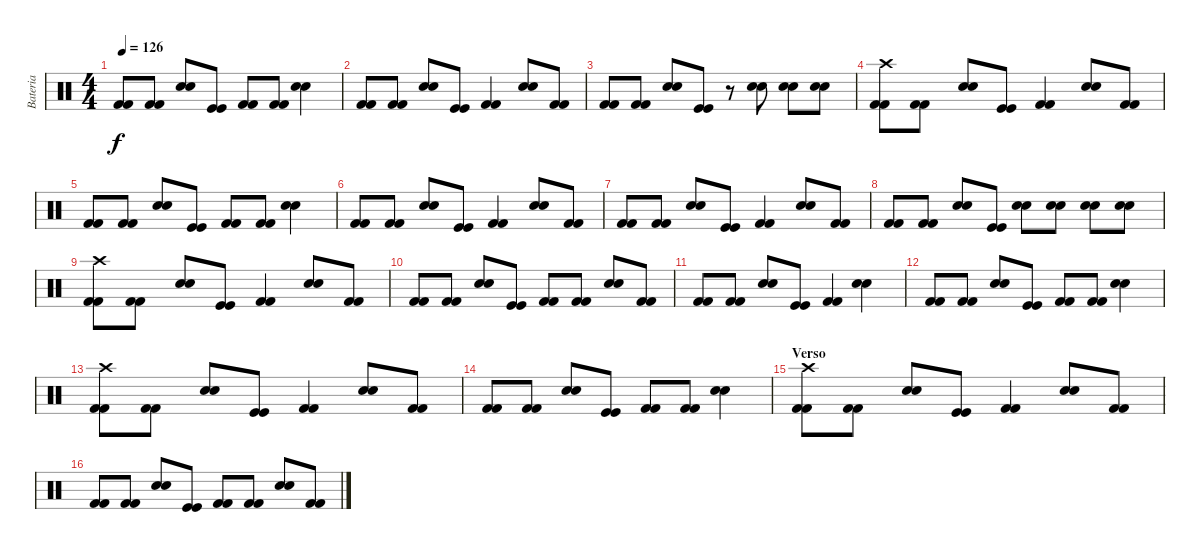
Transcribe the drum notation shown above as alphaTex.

\track ("Bateria" "Bateria") {instrument percussion}
\staff {score}
\articulation defaults
\ts (4 4)
\tempo 126
\clef neutral
\ks c
("Kick (hit) 2" "Kick (hit) 2").8{dy f} ("Kick (hit) 2" "Kick (hit) 2").8 ("Electric Snare (hit)" "Snare (hit) 2").8 ("Kick (hit)" "Kick (hit)").8 ("Kick (hit) 2" "Kick (hit) 2").8 ("Kick (hit) 2" "Kick (hit) 2").8 ("Electric Snare (hit)" "Snare (hit) 2").4 |
("Kick (hit) 2" "Kick (hit) 2").8 ("Kick (hit) 2" "Kick (hit) 2").8 ("Electric Snare (hit)" "Snare (hit) 2").8 ("Kick (hit)" "Kick (hit)").8 ("Kick (hit) 2" "Kick (hit) 2").4 ("Electric Snare (hit)" "Snare (hit) 2").8 ("Kick (hit) 2" "Kick (hit) 2").8 |
("Kick (hit) 2" "Kick (hit) 2").8 ("Kick (hit) 2" "Kick (hit) 2").8 ("Electric Snare (hit)" "Snare (hit) 2").8 ("Kick (hit)" "Kick (hit)").8 r.8 ("Electric Snare (hit)" "Snare (hit) 2").8 ("Electric Snare (hit)" "Snare (hit) 2").8 ("Electric Snare (hit)" "Snare (hit) 2").8 |
("Crash high (hit)" "Kick (hit) 2" "Kick (hit) 2").8 ("Kick (hit) 2" "Kick (hit) 2").8 ("Electric Snare (hit)" "Snare (hit) 2").8 ("Kick (hit)" "Kick (hit)").8 ("Kick (hit) 2" "Kick (hit) 2").4 ("Electric Snare (hit)" "Snare (hit) 2").8 ("Kick (hit) 2" "Kick (hit) 2").8 |
("Kick (hit) 2" "Kick (hit) 2").8 ("Kick (hit) 2" "Kick (hit) 2").8 ("Electric Snare (hit)" "Snare (hit) 2").8 ("Kick (hit)" "Kick (hit)").8 ("Kick (hit) 2" "Kick (hit) 2").8 ("Kick (hit) 2" "Kick (hit) 2").8 ("Electric Snare (hit)" "Snare (hit) 2").4 |
("Kick (hit) 2" "Kick (hit) 2").8 ("Kick (hit) 2" "Kick (hit) 2").8 ("Electric Snare (hit)" "Snare (hit) 2").8 ("Kick (hit)" "Kick (hit)").8 ("Kick (hit) 2" "Kick (hit) 2").4 ("Electric Snare (hit)" "Snare (hit) 2").8 ("Kick (hit) 2" "Kick (hit) 2").8 |
("Kick (hit) 2" "Kick (hit) 2").8 ("Kick (hit) 2" "Kick (hit) 2").8 ("Electric Snare (hit)" "Snare (hit) 2").8 ("Kick (hit)" "Kick (hit)").8 ("Kick (hit) 2" "Kick (hit) 2").4 ("Electric Snare (hit)" "Snare (hit) 2").8 ("Kick (hit) 2" "Kick (hit) 2").8 |
("Kick (hit) 2" "Kick (hit) 2").8 ("Kick (hit) 2" "Kick (hit) 2").8 ("Electric Snare (hit)" "Snare (hit) 2").8 ("Kick (hit)" "Kick (hit)").8 ("Electric Snare (hit)" "Snare (hit) 2").8 ("Electric Snare (hit)" "Snare (hit) 2").8 ("Electric Snare (hit)" "Snare (hit) 2").8 ("Electric Snare (hit)" "Snare (hit) 2").8 |
("Crash high (hit)" "Kick (hit) 2" "Kick (hit) 2").8 ("Kick (hit) 2" "Kick (hit) 2").8 ("Electric Snare (hit)" "Snare (hit) 2").8 ("Kick (hit)" "Kick (hit)").8 ("Kick (hit) 2" "Kick (hit) 2").4 ("Electric Snare (hit)" "Snare (hit) 2").8 ("Kick (hit) 2" "Kick (hit) 2").8 |
("Kick (hit) 2" "Kick (hit) 2").8 ("Kick (hit) 2" "Kick (hit) 2").8 ("Electric Snare (hit)" "Snare (hit) 2").8 ("Kick (hit)" "Kick (hit)").8 ("Kick (hit) 2" "Kick (hit) 2").8 ("Kick (hit) 2" "Kick (hit) 2").8 ("Electric Snare (hit)" "Snare (hit) 2").8 ("Kick (hit) 2" "Kick (hit) 2").8 |
("Kick (hit) 2" "Kick (hit) 2").8 ("Kick (hit) 2" "Kick (hit) 2").8 ("Electric Snare (hit)" "Snare (hit) 2").8 ("Kick (hit)" "Kick (hit)").8 ("Kick (hit) 2" "Kick (hit) 2").4 ("Electric Snare (hit)" "Snare (hit) 2").4 |
("Kick (hit) 2" "Kick (hit) 2").8 ("Kick (hit) 2" "Kick (hit) 2").8 ("Electric Snare (hit)" "Snare (hit) 2").8 ("Kick (hit)" "Kick (hit)").8 ("Kick (hit) 2" "Kick (hit) 2").8 ("Kick (hit) 2" "Kick (hit) 2").8 ("Electric Snare (hit)" "Snare (hit) 2").4 |
("Crash high (hit)" "Kick (hit) 2" "Kick (hit) 2").8 ("Kick (hit) 2" "Kick (hit) 2").8 ("Electric Snare (hit)" "Snare (hit) 2").8 ("Kick (hit)" "Kick (hit)").8 ("Kick (hit) 2" "Kick (hit) 2").4 ("Electric Snare (hit)" "Snare (hit) 2").8 ("Kick (hit) 2" "Kick (hit) 2").8 |
("Kick (hit) 2" "Kick (hit) 2").8 ("Kick (hit) 2" "Kick (hit) 2").8 ("Electric Snare (hit)" "Snare (hit) 2").8 ("Kick (hit)" "Kick (hit)").8 ("Kick (hit) 2" "Kick (hit) 2").8 ("Kick (hit) 2" "Kick (hit) 2").8 ("Electric Snare (hit)" "Snare (hit) 2").4 |
\section ("" "Verso ")
("Crash high (hit)" "Kick (hit) 2" "Kick (hit) 2").8 ("Kick (hit) 2" "Kick (hit) 2").8 ("Electric Snare (hit)" "Snare (hit) 2").8 ("Kick (hit)" "Kick (hit)").8 ("Kick (hit) 2" "Kick (hit) 2").4 ("Electric Snare (hit)" "Snare (hit) 2").8 ("Kick (hit) 2" "Kick (hit) 2").8 |
("Kick (hit) 2" "Kick (hit) 2").8 ("Kick (hit) 2" "Kick (hit) 2").8 ("Electric Snare (hit)" "Snare (hit) 2").8 ("Kick (hit)" "Kick (hit)").8 ("Kick (hit) 2" "Kick (hit) 2").8 ("Kick (hit) 2" "Kick (hit) 2").8 ("Electric Snare (hit)" "Snare (hit) 2").8 ("Kick (hit) 2" "Kick (hit) 2").8
